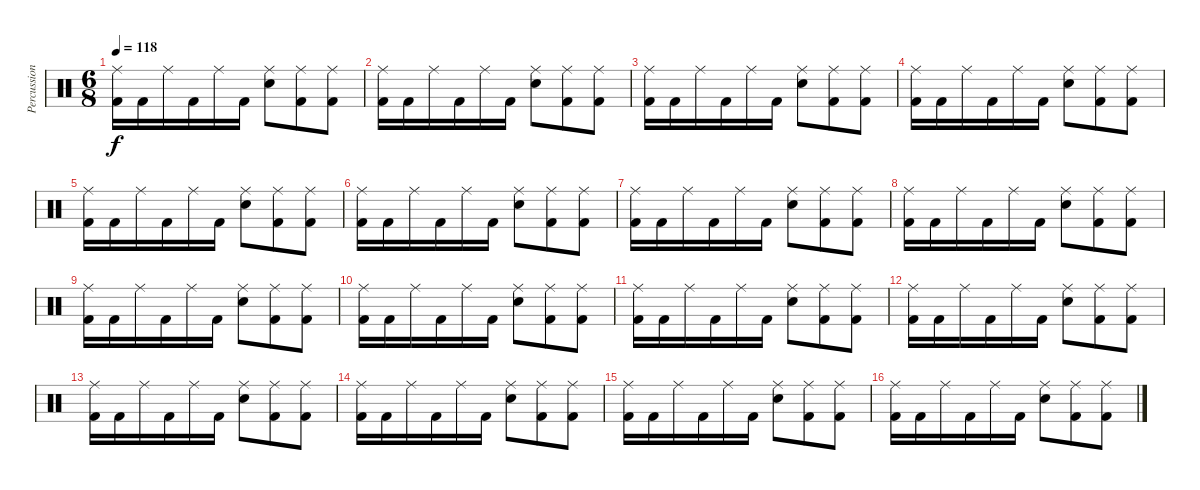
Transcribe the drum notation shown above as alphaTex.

\track ("Percussion" "Percussion") {instrument percussion}
\staff {score}
\articulation defaults
\ts (6 8)
\tempo 118
\clef neutral
\ks c
("Ride (middle)" "Kick (hit) 2").16{dy f} "Kick (hit) 2".16 "Ride (middle)".16 "Kick (hit) 2".16 "Ride (middle)".16 "Kick (hit) 2".16 ("Ride (middle)" "Electric Snare (hit)").8 ("Ride (middle)" "Kick (hit) 2").8 ("Ride (middle)" "Kick (hit) 2").8 |
("Ride (middle)" "Kick (hit) 2").16 "Kick (hit) 2".16 "Ride (middle)".16 "Kick (hit) 2".16 "Ride (middle)".16 "Kick (hit) 2".16 ("Ride (middle)" "Electric Snare (hit)").8 ("Ride (middle)" "Kick (hit) 2").8 ("Ride (middle)" "Kick (hit) 2").8 |
("Ride (middle)" "Kick (hit) 2").16 "Kick (hit) 2".16 "Ride (middle)".16 "Kick (hit) 2".16 "Ride (middle)".16 "Kick (hit) 2".16 ("Ride (middle)" "Electric Snare (hit)").8 ("Ride (middle)" "Kick (hit) 2").8 ("Ride (middle)" "Kick (hit) 2").8 |
("Ride (middle)" "Kick (hit) 2").16 "Kick (hit) 2".16 "Ride (middle)".16 "Kick (hit) 2".16 "Ride (middle)".16 "Kick (hit) 2".16 ("Ride (middle)" "Electric Snare (hit)").8 ("Ride (middle)" "Kick (hit) 2").8 ("Ride (middle)" "Kick (hit) 2").8 |
("Ride (middle)" "Kick (hit) 2").16 "Kick (hit) 2".16 "Ride (middle)".16 "Kick (hit) 2".16 "Ride (middle)".16 "Kick (hit) 2".16 ("Ride (middle)" "Electric Snare (hit)").8 ("Ride (middle)" "Kick (hit) 2").8 ("Ride (middle)" "Kick (hit) 2").8 |
("Ride (middle)" "Kick (hit) 2").16 "Kick (hit) 2".16 "Ride (middle)".16 "Kick (hit) 2".16 "Ride (middle)".16 "Kick (hit) 2".16 ("Ride (middle)" "Electric Snare (hit)").8 ("Ride (middle)" "Kick (hit) 2").8 ("Ride (middle)" "Kick (hit) 2").8 |
("Ride (middle)" "Kick (hit) 2").16 "Kick (hit) 2".16 "Ride (middle)".16 "Kick (hit) 2".16 "Ride (middle)".16 "Kick (hit) 2".16 ("Ride (middle)" "Electric Snare (hit)").8 ("Ride (middle)" "Kick (hit) 2").8 ("Ride (middle)" "Kick (hit) 2").8 |
("Ride (middle)" "Kick (hit) 2").16 "Kick (hit) 2".16 "Ride (middle)".16 "Kick (hit) 2".16 "Ride (middle)".16 "Kick (hit) 2".16 ("Ride (middle)" "Electric Snare (hit)").8 ("Ride (middle)" "Kick (hit) 2").8 ("Ride (middle)" "Kick (hit) 2").8 |
("Ride (middle)" "Kick (hit) 2").16 "Kick (hit) 2".16 "Ride (middle)".16 "Kick (hit) 2".16 "Ride (middle)".16 "Kick (hit) 2".16 ("Ride (middle)" "Electric Snare (hit)").8 ("Ride (middle)" "Kick (hit) 2").8 ("Ride (middle)" "Kick (hit) 2").8 |
("Ride (middle)" "Kick (hit) 2").16 "Kick (hit) 2".16 "Ride (middle)".16 "Kick (hit) 2".16 "Ride (middle)".16 "Kick (hit) 2".16 ("Ride (middle)" "Electric Snare (hit)").8 ("Ride (middle)" "Kick (hit) 2").8 ("Ride (middle)" "Kick (hit) 2").8 |
("Ride (middle)" "Kick (hit) 2").16 "Kick (hit) 2".16 "Ride (middle)".16 "Kick (hit) 2".16 "Ride (middle)".16 "Kick (hit) 2".16 ("Ride (middle)" "Electric Snare (hit)").8 ("Ride (middle)" "Kick (hit) 2").8 ("Ride (middle)" "Kick (hit) 2").8 |
("Ride (middle)" "Kick (hit) 2").16 "Kick (hit) 2".16 "Ride (middle)".16 "Kick (hit) 2".16 "Ride (middle)".16 "Kick (hit) 2".16 ("Ride (middle)" "Electric Snare (hit)").8 ("Ride (middle)" "Kick (hit) 2").8 ("Ride (middle)" "Kick (hit) 2").8 |
("Ride (middle)" "Kick (hit) 2").16 "Kick (hit) 2".16 "Ride (middle)".16 "Kick (hit) 2".16 "Ride (middle)".16 "Kick (hit) 2".16 ("Ride (middle)" "Electric Snare (hit)").8 ("Ride (middle)" "Kick (hit) 2").8 ("Ride (middle)" "Kick (hit) 2").8 |
("Ride (middle)" "Kick (hit) 2").16 "Kick (hit) 2".16 "Ride (middle)".16 "Kick (hit) 2".16 "Ride (middle)".16 "Kick (hit) 2".16 ("Ride (middle)" "Electric Snare (hit)").8 ("Ride (middle)" "Kick (hit) 2").8 ("Ride (middle)" "Kick (hit) 2").8 |
("Ride (middle)" "Kick (hit) 2").16 "Kick (hit) 2".16 "Ride (middle)".16 "Kick (hit) 2".16 "Ride (middle)".16 "Kick (hit) 2".16 ("Ride (middle)" "Electric Snare (hit)").8 ("Ride (middle)" "Kick (hit) 2").8 ("Ride (middle)" "Kick (hit) 2").8 |
("Ride (middle)" "Kick (hit) 2").16 "Kick (hit) 2".16 "Ride (middle)".16 "Kick (hit) 2".16 "Ride (middle)".16 "Kick (hit) 2".16 ("Ride (middle)" "Electric Snare (hit)").8 ("Ride (middle)" "Kick (hit) 2").8 ("Ride (middle)" "Kick (hit) 2").8
